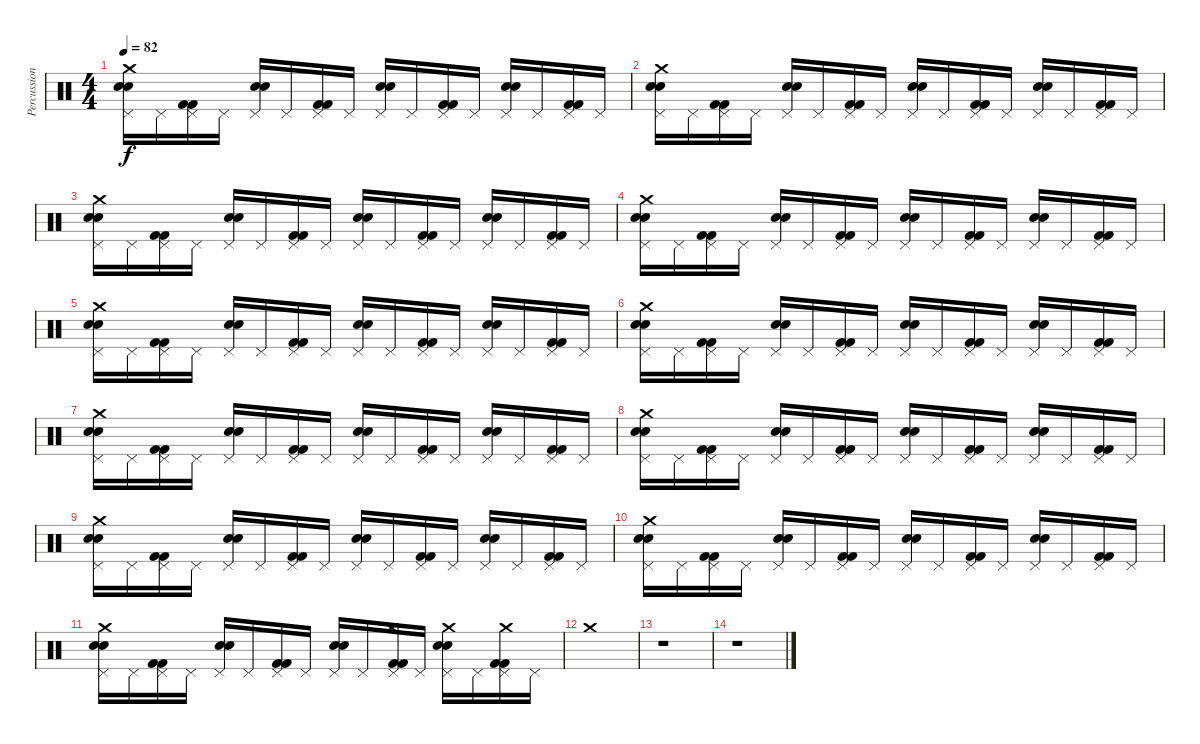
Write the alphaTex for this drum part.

\track ("Percussion" "Percussion") {instrument percussion}
\staff {score}
\articulation defaults
\ts (4 4)
\tempo 82
\clef neutral
\ks c
("Pedal Hi-Hat (hit)" "Electric Snare (hit)" "Crash medium (hit)" "Electric Snare (hit)").16{dy f} "Pedal Hi-Hat (hit)".16 ("Pedal Hi-Hat (hit)" "Kick (hit) 2" "Kick (hit) 2").16 "Pedal Hi-Hat (hit)".16 ("Pedal Hi-Hat (hit)" "Electric Snare (hit)" "Electric Snare (hit)").16 "Pedal Hi-Hat (hit)".16 ("Pedal Hi-Hat (hit)" "Kick (hit) 2" "Kick (hit) 2").16 "Pedal Hi-Hat (hit)".16 ("Pedal Hi-Hat (hit)" "Electric Snare (hit)" "Electric Snare (hit)").16 "Pedal Hi-Hat (hit)".16 ("Pedal Hi-Hat (hit)" "Kick (hit) 2" "Kick (hit) 2").16 "Pedal Hi-Hat (hit)".16 ("Pedal Hi-Hat (hit)" "Electric Snare (hit)" "Electric Snare (hit)").16 "Pedal Hi-Hat (hit)".16 ("Pedal Hi-Hat (hit)" "Kick (hit) 2" "Kick (hit) 2").16 "Pedal Hi-Hat (hit)".16 |
("Pedal Hi-Hat (hit)" "Electric Snare (hit)" "Crash medium (hit)" "Electric Snare (hit)").16 "Pedal Hi-Hat (hit)".16 ("Pedal Hi-Hat (hit)" "Kick (hit) 2" "Kick (hit) 2").16 "Pedal Hi-Hat (hit)".16 ("Pedal Hi-Hat (hit)" "Electric Snare (hit)" "Electric Snare (hit)").16 "Pedal Hi-Hat (hit)".16 ("Pedal Hi-Hat (hit)" "Kick (hit) 2" "Kick (hit) 2").16 "Pedal Hi-Hat (hit)".16 ("Pedal Hi-Hat (hit)" "Electric Snare (hit)" "Electric Snare (hit)").16 "Pedal Hi-Hat (hit)".16 ("Pedal Hi-Hat (hit)" "Kick (hit) 2" "Kick (hit) 2").16 "Pedal Hi-Hat (hit)".16 ("Pedal Hi-Hat (hit)" "Electric Snare (hit)" "Electric Snare (hit)").16 "Pedal Hi-Hat (hit)".16 ("Pedal Hi-Hat (hit)" "Kick (hit) 2" "Kick (hit) 2").16 "Pedal Hi-Hat (hit)".16 |
("Pedal Hi-Hat (hit)" "Electric Snare (hit)" "Crash medium (hit)" "Electric Snare (hit)").16 "Pedal Hi-Hat (hit)".16 ("Pedal Hi-Hat (hit)" "Kick (hit) 2" "Kick (hit) 2").16 "Pedal Hi-Hat (hit)".16 ("Pedal Hi-Hat (hit)" "Electric Snare (hit)" "Electric Snare (hit)").16 "Pedal Hi-Hat (hit)".16 ("Pedal Hi-Hat (hit)" "Kick (hit) 2" "Kick (hit) 2").16 "Pedal Hi-Hat (hit)".16 ("Pedal Hi-Hat (hit)" "Electric Snare (hit)" "Electric Snare (hit)").16 "Pedal Hi-Hat (hit)".16 ("Pedal Hi-Hat (hit)" "Kick (hit) 2" "Kick (hit) 2").16 "Pedal Hi-Hat (hit)".16 ("Pedal Hi-Hat (hit)" "Electric Snare (hit)" "Electric Snare (hit)").16 "Pedal Hi-Hat (hit)".16 ("Pedal Hi-Hat (hit)" "Kick (hit) 2" "Kick (hit) 2").16 "Pedal Hi-Hat (hit)".16 |
("Pedal Hi-Hat (hit)" "Electric Snare (hit)" "Crash medium (hit)" "Electric Snare (hit)").16 "Pedal Hi-Hat (hit)".16 ("Pedal Hi-Hat (hit)" "Kick (hit) 2" "Kick (hit) 2").16 "Pedal Hi-Hat (hit)".16 ("Pedal Hi-Hat (hit)" "Electric Snare (hit)" "Electric Snare (hit)").16 "Pedal Hi-Hat (hit)".16 ("Pedal Hi-Hat (hit)" "Kick (hit) 2" "Kick (hit) 2").16 "Pedal Hi-Hat (hit)".16 ("Pedal Hi-Hat (hit)" "Electric Snare (hit)" "Electric Snare (hit)").16 "Pedal Hi-Hat (hit)".16 ("Pedal Hi-Hat (hit)" "Kick (hit) 2" "Kick (hit) 2").16 "Pedal Hi-Hat (hit)".16 ("Pedal Hi-Hat (hit)" "Electric Snare (hit)" "Electric Snare (hit)").16 "Pedal Hi-Hat (hit)".16 ("Pedal Hi-Hat (hit)" "Kick (hit) 2" "Kick (hit) 2").16 "Pedal Hi-Hat (hit)".16 |
("Pedal Hi-Hat (hit)" "Electric Snare (hit)" "Crash medium (hit)" "Electric Snare (hit)").16 "Pedal Hi-Hat (hit)".16 ("Pedal Hi-Hat (hit)" "Kick (hit) 2" "Kick (hit) 2").16 "Pedal Hi-Hat (hit)".16 ("Pedal Hi-Hat (hit)" "Electric Snare (hit)" "Electric Snare (hit)").16 "Pedal Hi-Hat (hit)".16 ("Pedal Hi-Hat (hit)" "Kick (hit) 2" "Kick (hit) 2").16 "Pedal Hi-Hat (hit)".16 ("Pedal Hi-Hat (hit)" "Electric Snare (hit)" "Electric Snare (hit)").16 "Pedal Hi-Hat (hit)".16 ("Pedal Hi-Hat (hit)" "Kick (hit) 2" "Kick (hit) 2").16 "Pedal Hi-Hat (hit)".16 ("Pedal Hi-Hat (hit)" "Electric Snare (hit)" "Electric Snare (hit)").16 "Pedal Hi-Hat (hit)".16 ("Pedal Hi-Hat (hit)" "Kick (hit) 2" "Kick (hit) 2").16 "Pedal Hi-Hat (hit)".16 |
("Pedal Hi-Hat (hit)" "Electric Snare (hit)" "Crash medium (hit)" "Electric Snare (hit)").16 "Pedal Hi-Hat (hit)".16 ("Pedal Hi-Hat (hit)" "Kick (hit) 2" "Kick (hit) 2").16 "Pedal Hi-Hat (hit)".16 ("Pedal Hi-Hat (hit)" "Electric Snare (hit)" "Electric Snare (hit)").16 "Pedal Hi-Hat (hit)".16 ("Pedal Hi-Hat (hit)" "Kick (hit) 2" "Kick (hit) 2").16 "Pedal Hi-Hat (hit)".16 ("Pedal Hi-Hat (hit)" "Electric Snare (hit)" "Electric Snare (hit)").16 "Pedal Hi-Hat (hit)".16 ("Pedal Hi-Hat (hit)" "Kick (hit) 2" "Kick (hit) 2").16 "Pedal Hi-Hat (hit)".16 ("Pedal Hi-Hat (hit)" "Electric Snare (hit)" "Electric Snare (hit)").16 "Pedal Hi-Hat (hit)".16 ("Pedal Hi-Hat (hit)" "Kick (hit) 2" "Kick (hit) 2").16 "Pedal Hi-Hat (hit)".16 |
("Pedal Hi-Hat (hit)" "Electric Snare (hit)" "Crash medium (hit)" "Electric Snare (hit)").16 "Pedal Hi-Hat (hit)".16 ("Pedal Hi-Hat (hit)" "Kick (hit) 2" "Kick (hit) 2").16 "Pedal Hi-Hat (hit)".16 ("Pedal Hi-Hat (hit)" "Electric Snare (hit)" "Electric Snare (hit)").16 "Pedal Hi-Hat (hit)".16 ("Pedal Hi-Hat (hit)" "Kick (hit) 2" "Kick (hit) 2").16 "Pedal Hi-Hat (hit)".16 ("Pedal Hi-Hat (hit)" "Electric Snare (hit)" "Electric Snare (hit)").16 "Pedal Hi-Hat (hit)".16 ("Pedal Hi-Hat (hit)" "Kick (hit) 2" "Kick (hit) 2").16 "Pedal Hi-Hat (hit)".16 ("Pedal Hi-Hat (hit)" "Electric Snare (hit)" "Electric Snare (hit)").16 "Pedal Hi-Hat (hit)".16 ("Pedal Hi-Hat (hit)" "Kick (hit) 2" "Kick (hit) 2").16 "Pedal Hi-Hat (hit)".16 |
("Pedal Hi-Hat (hit)" "Electric Snare (hit)" "Crash medium (hit)" "Electric Snare (hit)").16 "Pedal Hi-Hat (hit)".16 ("Pedal Hi-Hat (hit)" "Kick (hit) 2" "Kick (hit) 2").16 "Pedal Hi-Hat (hit)".16 ("Pedal Hi-Hat (hit)" "Electric Snare (hit)" "Electric Snare (hit)").16 "Pedal Hi-Hat (hit)".16 ("Pedal Hi-Hat (hit)" "Kick (hit) 2" "Kick (hit) 2").16 "Pedal Hi-Hat (hit)".16 ("Pedal Hi-Hat (hit)" "Electric Snare (hit)" "Electric Snare (hit)").16 "Pedal Hi-Hat (hit)".16 ("Pedal Hi-Hat (hit)" "Kick (hit) 2" "Kick (hit) 2").16 "Pedal Hi-Hat (hit)".16 ("Pedal Hi-Hat (hit)" "Electric Snare (hit)" "Electric Snare (hit)").16 "Pedal Hi-Hat (hit)".16 ("Pedal Hi-Hat (hit)" "Kick (hit) 2" "Kick (hit) 2").16 "Pedal Hi-Hat (hit)".16 |
("Pedal Hi-Hat (hit)" "Electric Snare (hit)" "Crash medium (hit)" "Electric Snare (hit)").16 "Pedal Hi-Hat (hit)".16 ("Pedal Hi-Hat (hit)" "Kick (hit) 2" "Kick (hit) 2").16 "Pedal Hi-Hat (hit)".16 ("Pedal Hi-Hat (hit)" "Electric Snare (hit)" "Electric Snare (hit)").16 "Pedal Hi-Hat (hit)".16 ("Pedal Hi-Hat (hit)" "Kick (hit) 2" "Kick (hit) 2").16 "Pedal Hi-Hat (hit)".16 ("Pedal Hi-Hat (hit)" "Electric Snare (hit)" "Electric Snare (hit)").16 "Pedal Hi-Hat (hit)".16 ("Pedal Hi-Hat (hit)" "Kick (hit) 2" "Kick (hit) 2").16 "Pedal Hi-Hat (hit)".16 ("Pedal Hi-Hat (hit)" "Electric Snare (hit)" "Electric Snare (hit)").16 "Pedal Hi-Hat (hit)".16 ("Pedal Hi-Hat (hit)" "Kick (hit) 2" "Kick (hit) 2").16 "Pedal Hi-Hat (hit)".16 |
("Pedal Hi-Hat (hit)" "Electric Snare (hit)" "Crash medium (hit)" "Electric Snare (hit)").16 "Pedal Hi-Hat (hit)".16 ("Pedal Hi-Hat (hit)" "Kick (hit) 2" "Kick (hit) 2").16 "Pedal Hi-Hat (hit)".16 ("Pedal Hi-Hat (hit)" "Electric Snare (hit)" "Electric Snare (hit)").16 "Pedal Hi-Hat (hit)".16 ("Pedal Hi-Hat (hit)" "Kick (hit) 2" "Kick (hit) 2").16 "Pedal Hi-Hat (hit)".16 ("Pedal Hi-Hat (hit)" "Electric Snare (hit)" "Electric Snare (hit)").16 "Pedal Hi-Hat (hit)".16 ("Pedal Hi-Hat (hit)" "Kick (hit) 2" "Kick (hit) 2").16 "Pedal Hi-Hat (hit)".16 ("Pedal Hi-Hat (hit)" "Electric Snare (hit)" "Electric Snare (hit)").16 "Pedal Hi-Hat (hit)".16 ("Pedal Hi-Hat (hit)" "Kick (hit) 2" "Kick (hit) 2").16 "Pedal Hi-Hat (hit)".16 |
("Pedal Hi-Hat (hit)" "Electric Snare (hit)" "Crash medium (hit)" "Electric Snare (hit)").16 "Pedal Hi-Hat (hit)".16 ("Pedal Hi-Hat (hit)" "Kick (hit) 2" "Kick (hit) 2").16 "Pedal Hi-Hat (hit)".16 ("Pedal Hi-Hat (hit)" "Electric Snare (hit)" "Electric Snare (hit)").16 "Pedal Hi-Hat (hit)".16 ("Pedal Hi-Hat (hit)" "Kick (hit) 2" "Kick (hit) 2").16 "Pedal Hi-Hat (hit)".16 ("Pedal Hi-Hat (hit)" "Electric Snare (hit)" "Electric Snare (hit)").16 "Pedal Hi-Hat (hit)".16 ("Pedal Hi-Hat (hit)" "Kick (hit) 2" "Crash medium (hit)" "Kick (hit) 2").16 "Pedal Hi-Hat (hit)".16 ("Pedal Hi-Hat (hit)" "Electric Snare (hit)" "Crash medium (hit)" "Electric Snare (hit)").16 "Pedal Hi-Hat (hit)".16 ("Pedal Hi-Hat (hit)" "Kick (hit) 2" "Crash medium (hit)" "Kick (hit) 2").16 "Pedal Hi-Hat (hit)".16 |
"Crash medium (hit)".1 |
r.1 |
r.1
